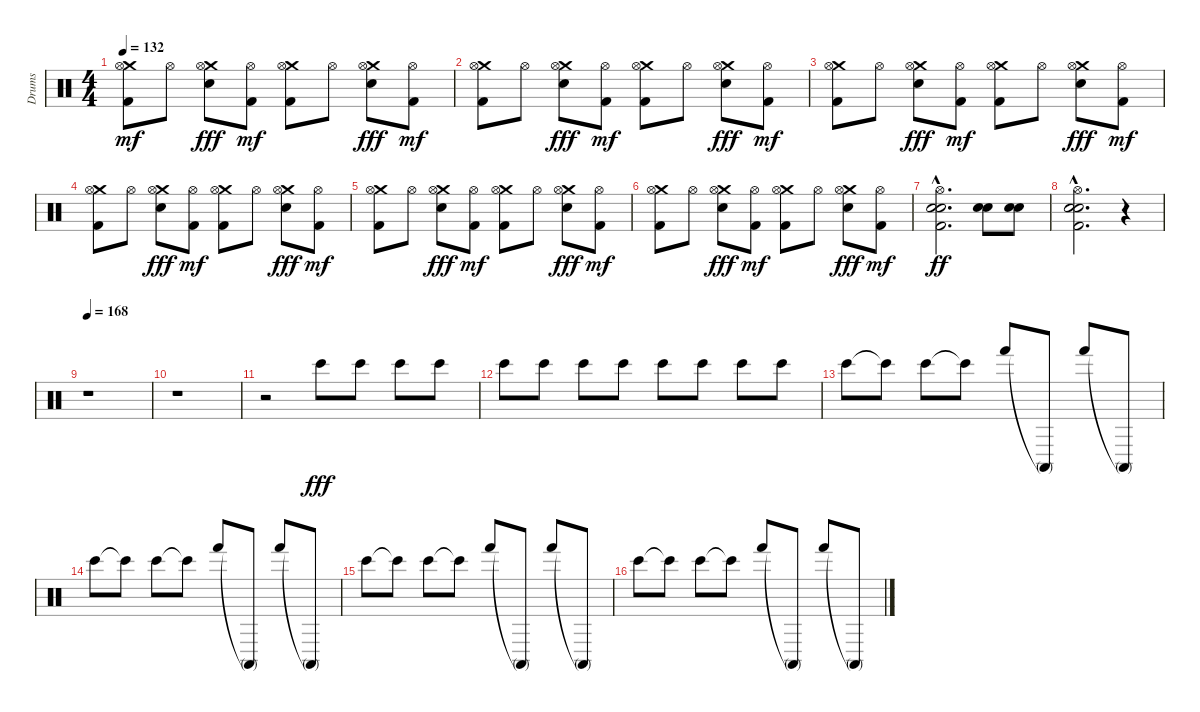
\track ("Drums" "Drums") {instrument percussion}
\staff {score}
\articulation defaults
\ts (4 4)
\tempo 132
\clef neutral
\ks c
("Crash medium (hit)" "Hi-Hat (open)" "Kick (hit) 2").8{dy mf} "Hi-Hat (open)".8 ("Crash medium (hit)" "Hi-Hat (open)" "Electric Snare (hit)").8{dy fff} ("Hi-Hat (open)" "Kick (hit) 2").8{dy mf} ("Crash medium (hit)" "Hi-Hat (open)" "Kick (hit) 2").8 "Hi-Hat (open)".8 ("Crash medium (hit)" "Hi-Hat (open)" "Electric Snare (hit)").8{dy fff} ("Hi-Hat (open)" "Kick (hit) 2").8{dy mf} |
("Crash medium (hit)" "Hi-Hat (open)" "Kick (hit) 2").8 "Hi-Hat (open)".8 ("Crash medium (hit)" "Hi-Hat (open)" "Electric Snare (hit)").8{dy fff} ("Hi-Hat (open)" "Kick (hit) 2").8{dy mf} ("Crash medium (hit)" "Hi-Hat (open)" "Kick (hit) 2").8 "Hi-Hat (open)".8 ("Crash medium (hit)" "Hi-Hat (open)" "Electric Snare (hit)").8{dy fff} ("Hi-Hat (open)" "Kick (hit) 2").8{dy mf} |
("Crash medium (hit)" "Hi-Hat (open)" "Kick (hit) 2").8 "Hi-Hat (open)".8 ("Crash medium (hit)" "Hi-Hat (open)" "Electric Snare (hit)").8{dy fff} ("Hi-Hat (open)" "Kick (hit) 2").8{dy mf} ("Crash medium (hit)" "Hi-Hat (open)" "Kick (hit) 2").8 "Hi-Hat (open)".8 ("Crash medium (hit)" "Hi-Hat (open)" "Electric Snare (hit)").8{dy fff} ("Hi-Hat (open)" "Kick (hit) 2").8{dy mf} |
("Crash medium (hit)" "Hi-Hat (open)" "Kick (hit) 2").8 "Hi-Hat (open)".8 ("Crash medium (hit)" "Hi-Hat (open)" "Electric Snare (hit)").8{dy fff} ("Hi-Hat (open)" "Kick (hit) 2").8{dy mf} ("Crash medium (hit)" "Hi-Hat (open)" "Kick (hit) 2").8 "Hi-Hat (open)".8 ("Crash medium (hit)" "Hi-Hat (open)" "Electric Snare (hit)").8{dy fff} ("Hi-Hat (open)" "Kick (hit) 2").8{dy mf} |
("Crash medium (hit)" "Hi-Hat (open)" "Kick (hit) 2").8 "Hi-Hat (open)".8 ("Crash medium (hit)" "Hi-Hat (open)" "Electric Snare (hit)").8{dy fff} ("Hi-Hat (open)" "Kick (hit) 2").8{dy mf} ("Crash medium (hit)" "Hi-Hat (open)" "Kick (hit) 2").8 "Hi-Hat (open)".8 ("Crash medium (hit)" "Hi-Hat (open)" "Electric Snare (hit)").8{dy fff} ("Hi-Hat (open)" "Kick (hit) 2").8{dy mf} |
("Crash medium (hit)" "Hi-Hat (open)" "Kick (hit) 2").8 "Hi-Hat (open)".8 ("Crash medium (hit)" "Hi-Hat (open)" "Electric Snare (hit)").8{dy fff} ("Hi-Hat (open)" "Kick (hit) 2").8{dy mf} ("Crash medium (hit)" "Hi-Hat (open)" "Kick (hit) 2").8 "Hi-Hat (open)".8 ("Crash medium (hit)" "Hi-Hat (open)" "Electric Snare (hit)").8{dy fff} ("Hi-Hat (open)" "Kick (hit) 2").8{dy mf} |
("Hi-Hat (open)"{hac} "Electric Snare (hit)"{hac} "Snare (hit) 2"{hac} "Kick (hit) 2"{hac}).2{d dy ff} ("Electric Snare (hit)" "Snare (hit) 2").8 ("Electric Snare (hit)" "Snare (hit) 2").8 |
("Hi-Hat (open)"{hac} "Electric Snare (hit)"{hac} "Snare (hit) 2"{hac} "Kick (hit) 2"{hac}).2{d} r.4 |
\tempo 168
r.1 |
r.1 |
r.2{volume 8} "Bongo High (hit)".8{dy fff volume 15} "Bongo High (hit)".8 "Bongo High (hit)".8 "Bongo High (hit)".8 |
"Bongo High (hit)".8 "Bongo High (hit)".8 "Bongo High (hit)".8 "Bongo High (hit)".8 "Bongo High (hit)".8 "Bongo High (hit)".8 "Bongo High (hit)".8 "Bongo High (hit)".8 |
"Bongo High (hit)".8 "Bongo High (hit)"{t}.8 "Bongo High (hit)".8 "Bongo High (hit)"{t}.8 "Hand (hit)".8 "Conga high (mute)"{t}.8 "Hand (hit)".8 "Conga high (mute)"{t}.8 |
"Bongo High (hit)".8 "Bongo High (hit)"{t}.8 "Bongo High (hit)".8 "Bongo High (hit)"{t}.8 "Hand (hit)".8 "Conga high (mute)"{t}.8 "Hand (hit)".8 "Conga high (mute)"{t}.8 |
"Bongo High (hit)".8 "Bongo High (hit)"{t}.8 "Bongo High (hit)".8 "Bongo High (hit)"{t}.8 "Hand (hit)".8 "Conga high (mute)"{t}.8 "Hand (hit)".8 "Conga high (mute)"{t}.8 |
"Bongo High (hit)".8 "Bongo High (hit)"{t}.8 "Bongo High (hit)".8 "Bongo High (hit)"{t}.8 "Hand (hit)".8 "Conga high (mute)"{t}.8 "Hand (hit)".8 "Conga high (mute)"{t}.8
